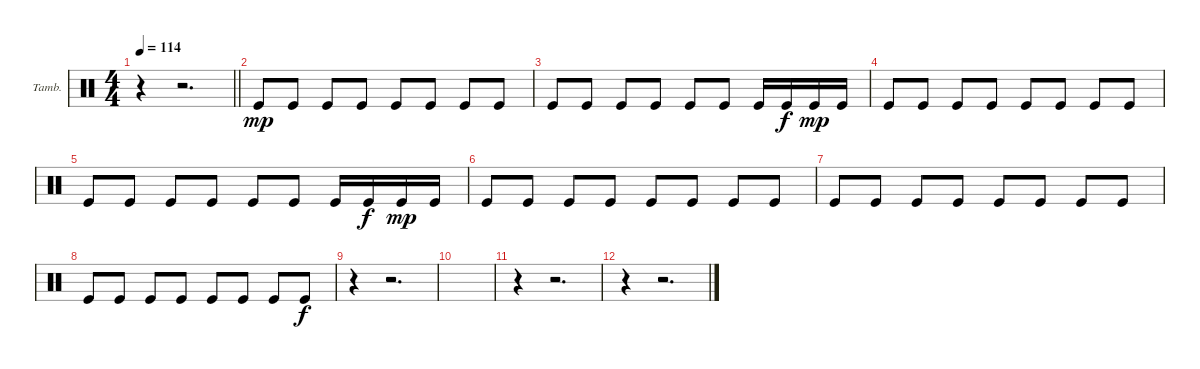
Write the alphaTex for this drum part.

\bracketExtendMode groupsimilarinstruments
\firstSystemTrackNameOrientation horizontal
\otherSystemsTrackNameOrientation horizontal
\track ("Tambourine" "Tamb.") {instrument percussion}
\staff {score}
\articulation defaults
\ts (4 4)
\tempo 114
\clef neutral
\barLineRight lightlight
\ks c
r.4{dy f} r.2{d} |
"Kick (hit)".8{dy mp} "Kick (hit)".8 "Kick (hit)".8 "Kick (hit)".8 "Kick (hit)".8 "Kick (hit)".8 "Kick (hit)".8 "Kick (hit)".8 |
"Kick (hit)".8 "Kick (hit)".8 "Kick (hit)".8 "Kick (hit)".8 "Kick (hit)".8 "Kick (hit)".8 "Kick (hit)".16 "Kick (hit)".16{dy f} "Kick (hit)".16{dy mp} "Kick (hit)".16 |
"Kick (hit)".8 "Kick (hit)".8 "Kick (hit)".8 "Kick (hit)".8 "Kick (hit)".8 "Kick (hit)".8 "Kick (hit)".8 "Kick (hit)".8 |
"Kick (hit)".8 "Kick (hit)".8 "Kick (hit)".8 "Kick (hit)".8 "Kick (hit)".8 "Kick (hit)".8 "Kick (hit)".16 "Kick (hit)".16{dy f} "Kick (hit)".16{dy mp} "Kick (hit)".16 |
"Kick (hit)".8 "Kick (hit)".8 "Kick (hit)".8 "Kick (hit)".8 "Kick (hit)".8 "Kick (hit)".8 "Kick (hit)".8 "Kick (hit)".8 |
"Kick (hit)".8 "Kick (hit)".8 "Kick (hit)".8 "Kick (hit)".8 "Kick (hit)".8 "Kick (hit)".8 "Kick (hit)".8 "Kick (hit)".8 |
"Kick (hit)".8 "Kick (hit)".8 "Kick (hit)".8 "Kick (hit)".8 "Kick (hit)".8 "Kick (hit)".8 "Kick (hit)".8 "Kick (hit)".8{dy f} |
r.4 r.2{d} |
|
r.4 r.2{d} |
r.4 r.2{d}
